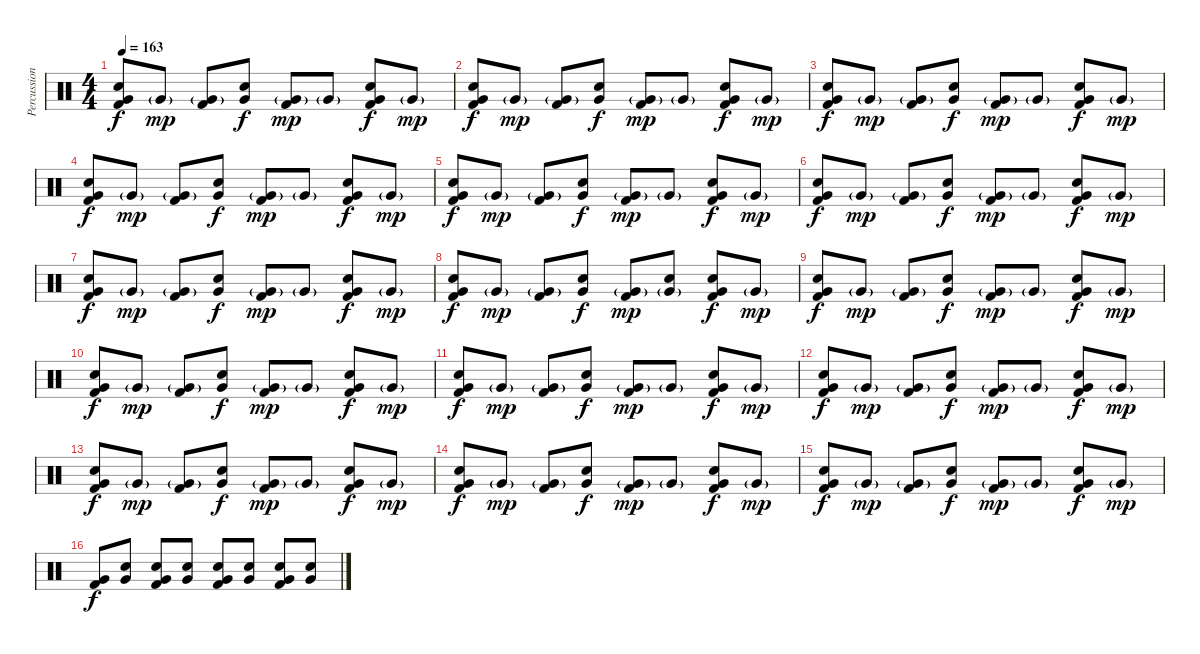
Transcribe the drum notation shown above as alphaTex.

\track ("Percussion" "Percussion") {instrument percussion}
\staff {score}
\articulation defaults
\ts (4 4)
\tempo 163
\clef neutral
\ks c
("Very Low Tom (hit)" "Snare (hit) 2" "Kick (hit) 2").8{dy f} "Very Low Tom (hit)"{g}.8{dy mp} ("Very Low Tom (hit)"{g} "Kick (hit) 2").8 ("Very Low Tom (hit)" "Snare (hit) 2").8{dy f} ("Very Low Tom (hit)"{g} "Kick (hit) 2").8{dy mp} "Very Low Tom (hit)"{g}.8 ("Very Low Tom (hit)" "Snare (hit) 2" "Kick (hit) 2").8{dy f} "Very Low Tom (hit)"{g}.8{dy mp} |
("Very Low Tom (hit)" "Snare (hit) 2" "Kick (hit) 2").8{dy f} "Very Low Tom (hit)"{g}.8{dy mp} ("Very Low Tom (hit)"{g} "Kick (hit) 2").8 ("Very Low Tom (hit)" "Snare (hit) 2").8{dy f} ("Very Low Tom (hit)"{g} "Kick (hit) 2").8{dy mp} "Very Low Tom (hit)"{g}.8 ("Very Low Tom (hit)" "Snare (hit) 2" "Kick (hit) 2").8{dy f} "Very Low Tom (hit)"{g}.8{dy mp} |
("Very Low Tom (hit)" "Snare (hit) 2" "Kick (hit) 2").8{dy f} "Very Low Tom (hit)"{g}.8{dy mp} ("Very Low Tom (hit)"{g} "Kick (hit) 2").8 ("Very Low Tom (hit)" "Snare (hit) 2").8{dy f} ("Very Low Tom (hit)"{g} "Kick (hit) 2").8{dy mp} "Very Low Tom (hit)"{g}.8 ("Very Low Tom (hit)" "Snare (hit) 2" "Kick (hit) 2").8{dy f} "Very Low Tom (hit)"{g}.8{dy mp} |
("Very Low Tom (hit)" "Snare (hit) 2" "Kick (hit) 2").8{dy f} "Very Low Tom (hit)"{g}.8{dy mp} ("Very Low Tom (hit)"{g} "Kick (hit) 2").8 ("Very Low Tom (hit)" "Snare (hit) 2").8{dy f} ("Very Low Tom (hit)"{g} "Kick (hit) 2").8{dy mp} "Very Low Tom (hit)"{g}.8 ("Very Low Tom (hit)" "Snare (hit) 2" "Kick (hit) 2").8{dy f} "Very Low Tom (hit)"{g}.8{dy mp} |
("Very Low Tom (hit)" "Snare (hit) 2" "Kick (hit) 2").8{dy f} "Very Low Tom (hit)"{g}.8{dy mp} ("Very Low Tom (hit)"{g} "Kick (hit) 2").8 ("Very Low Tom (hit)" "Snare (hit) 2").8{dy f} ("Very Low Tom (hit)"{g} "Kick (hit) 2").8{dy mp} "Very Low Tom (hit)"{g}.8 ("Very Low Tom (hit)" "Snare (hit) 2" "Kick (hit) 2").8{dy f} "Very Low Tom (hit)"{g}.8{dy mp} |
("Very Low Tom (hit)" "Snare (hit) 2" "Kick (hit) 2").8{dy f} "Very Low Tom (hit)"{g}.8{dy mp} ("Very Low Tom (hit)"{g} "Kick (hit) 2").8 ("Very Low Tom (hit)" "Snare (hit) 2").8{dy f} ("Very Low Tom (hit)"{g} "Kick (hit) 2").8{dy mp} "Very Low Tom (hit)"{g}.8 ("Very Low Tom (hit)" "Snare (hit) 2" "Kick (hit) 2").8{dy f} "Very Low Tom (hit)"{g}.8{dy mp} |
("Very Low Tom (hit)" "Snare (hit) 2" "Kick (hit) 2").8{dy f} "Very Low Tom (hit)"{g}.8{dy mp} ("Very Low Tom (hit)"{g} "Kick (hit) 2").8 ("Very Low Tom (hit)" "Snare (hit) 2").8{dy f} ("Very Low Tom (hit)"{g} "Kick (hit) 2").8{dy mp} "Very Low Tom (hit)"{g}.8 ("Very Low Tom (hit)" "Snare (hit) 2" "Kick (hit) 2").8{dy f} "Very Low Tom (hit)"{g}.8{dy mp} |
("Very Low Tom (hit)" "Snare (hit) 2" "Kick (hit) 2").8{dy f} "Very Low Tom (hit)"{g}.8{dy mp} ("Very Low Tom (hit)"{g} "Kick (hit) 2").8 ("Very Low Tom (hit)" "Snare (hit) 2").8{dy f} ("Very Low Tom (hit)"{g} "Kick (hit) 2").8{dy mp} ("Very Low Tom (hit)"{g} "Snare (hit) 2").8 ("Very Low Tom (hit)" "Snare (hit) 2" "Kick (hit) 2").8{dy f} "Very Low Tom (hit)"{g}.8{dy mp} |
("Very Low Tom (hit)" "Snare (hit) 2" "Kick (hit) 2").8{dy f} "Very Low Tom (hit)"{g}.8{dy mp} ("Very Low Tom (hit)"{g} "Kick (hit) 2").8 ("Very Low Tom (hit)" "Snare (hit) 2").8{dy f} ("Very Low Tom (hit)"{g} "Kick (hit) 2").8{dy mp} "Very Low Tom (hit)"{g}.8 ("Very Low Tom (hit)" "Snare (hit) 2" "Kick (hit) 2").8{dy f} "Very Low Tom (hit)"{g}.8{dy mp} |
("Very Low Tom (hit)" "Snare (hit) 2" "Kick (hit) 2").8{dy f} "Very Low Tom (hit)"{g}.8{dy mp} ("Very Low Tom (hit)"{g} "Kick (hit) 2").8 ("Very Low Tom (hit)" "Snare (hit) 2").8{dy f} ("Very Low Tom (hit)"{g} "Kick (hit) 2").8{dy mp} "Very Low Tom (hit)"{g}.8 ("Very Low Tom (hit)" "Snare (hit) 2" "Kick (hit) 2").8{dy f} "Very Low Tom (hit)"{g}.8{dy mp} |
("Very Low Tom (hit)" "Snare (hit) 2" "Kick (hit) 2").8{dy f} "Very Low Tom (hit)"{g}.8{dy mp} ("Very Low Tom (hit)"{g} "Kick (hit) 2").8 ("Very Low Tom (hit)" "Snare (hit) 2").8{dy f} ("Very Low Tom (hit)"{g} "Kick (hit) 2").8{dy mp} "Very Low Tom (hit)"{g}.8 ("Very Low Tom (hit)" "Snare (hit) 2" "Kick (hit) 2").8{dy f} "Very Low Tom (hit)"{g}.8{dy mp} |
("Very Low Tom (hit)" "Snare (hit) 2" "Kick (hit) 2").8{dy f} "Very Low Tom (hit)"{g}.8{dy mp} ("Very Low Tom (hit)"{g} "Kick (hit) 2").8 ("Very Low Tom (hit)" "Snare (hit) 2").8{dy f} ("Very Low Tom (hit)"{g} "Kick (hit) 2").8{dy mp} "Very Low Tom (hit)"{g}.8 ("Very Low Tom (hit)" "Snare (hit) 2" "Kick (hit) 2").8{dy f} "Very Low Tom (hit)"{g}.8{dy mp} |
("Very Low Tom (hit)" "Snare (hit) 2" "Kick (hit) 2").8{dy f} "Very Low Tom (hit)"{g}.8{dy mp} ("Very Low Tom (hit)"{g} "Kick (hit) 2").8 ("Very Low Tom (hit)" "Snare (hit) 2").8{dy f} ("Very Low Tom (hit)"{g} "Kick (hit) 2").8{dy mp} "Very Low Tom (hit)"{g}.8 ("Very Low Tom (hit)" "Snare (hit) 2" "Kick (hit) 2").8{dy f} "Very Low Tom (hit)"{g}.8{dy mp} |
("Very Low Tom (hit)" "Snare (hit) 2" "Kick (hit) 2").8{dy f} "Very Low Tom (hit)"{g}.8{dy mp} ("Very Low Tom (hit)"{g} "Kick (hit) 2").8 ("Very Low Tom (hit)" "Snare (hit) 2").8{dy f} ("Very Low Tom (hit)"{g} "Kick (hit) 2").8{dy mp} "Very Low Tom (hit)"{g}.8 ("Very Low Tom (hit)" "Snare (hit) 2" "Kick (hit) 2").8{dy f} "Very Low Tom (hit)"{g}.8{dy mp} |
("Very Low Tom (hit)" "Snare (hit) 2" "Kick (hit) 2").8{dy f} "Very Low Tom (hit)"{g}.8{dy mp} ("Very Low Tom (hit)"{g} "Kick (hit) 2").8 ("Very Low Tom (hit)" "Snare (hit) 2").8{dy f} ("Very Low Tom (hit)"{g} "Kick (hit) 2").8{dy mp} "Very Low Tom (hit)"{g}.8 ("Very Low Tom (hit)" "Snare (hit) 2" "Kick (hit) 2").8{dy f} "Very Low Tom (hit)"{g}.8{dy mp} |
("Very Low Tom (hit)" "Kick (hit) 2").8{dy f} ("Very Low Tom (hit)" "Snare (hit) 2").8 ("Very Low Tom (hit)" "Snare (hit) 2" "Kick (hit) 2").8 ("Very Low Tom (hit)" "Snare (hit) 2").8 ("Very Low Tom (hit)" "Snare (hit) 2" "Kick (hit) 2").8 ("Very Low Tom (hit)" "Snare (hit) 2").8 ("Very Low Tom (hit)" "Snare (hit) 2" "Kick (hit) 2").8 ("Very Low Tom (hit)" "Snare (hit) 2").8
